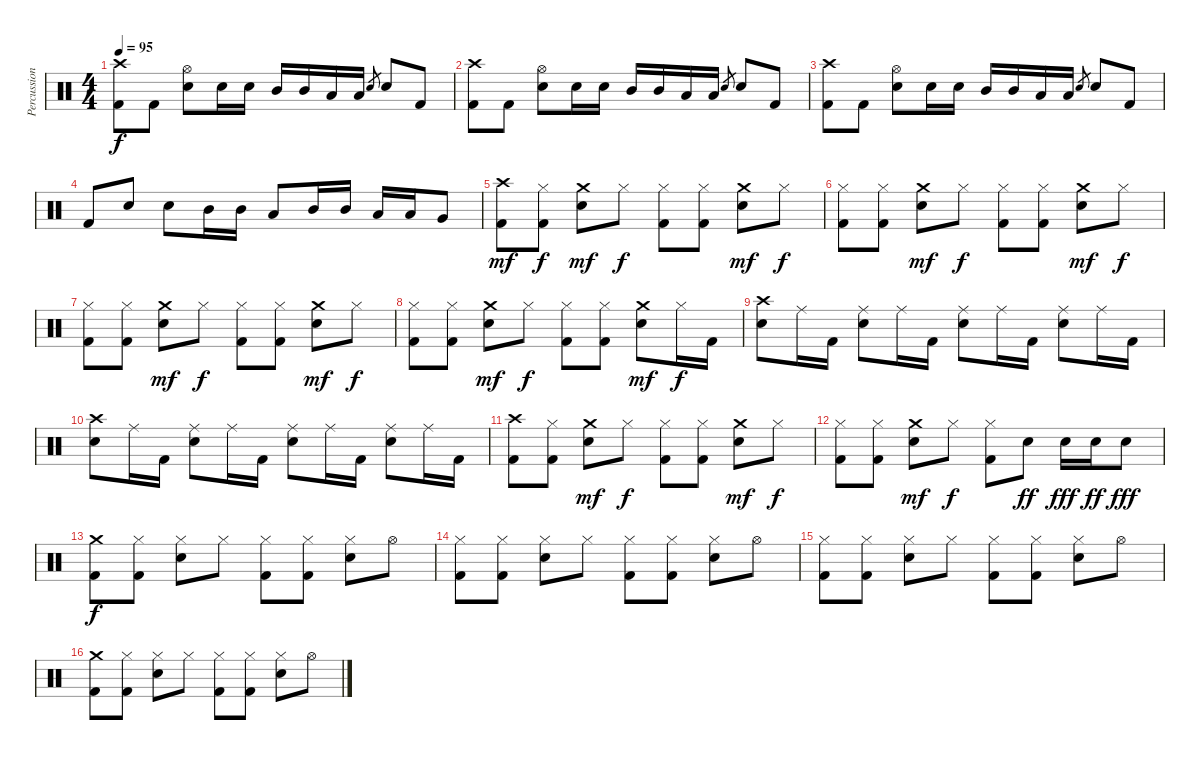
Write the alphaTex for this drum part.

\track ("Percussions" "Percussion") {instrument percussion}
\staff {score}
\articulation defaults
\ts (4 4)
\tempo 95
\clef neutral
\ks c
("Crash high (hit)" "Kick (hit) 2").8{dy f} "Kick (hit) 2".8 ("Hi-Hat (open)" "Electric Snare (hit)").8 "Electric Snare (hit)".16 "Electric Snare (hit)".16 "Mid Tom (hit)".16 "Mid Tom (hit)".16 "Low Tom (hit)".16 "Low Tom (hit)".16 "Electric Snare (hit)".8{gr} "Electric Snare (hit)".8 "Kick (hit) 2".8 |
("Crash high (hit)" "Kick (hit) 2").8 "Kick (hit) 2".8 ("Hi-Hat (open)" "Electric Snare (hit)").8 "Electric Snare (hit)".16 "Electric Snare (hit)".16 "Mid Tom (hit)".16 "Mid Tom (hit)".16 "Low Tom (hit)".16 "Low Tom (hit)".16 "Electric Snare (hit)".8{gr} "Electric Snare (hit)".8 "Kick (hit) 2".8 |
("Crash high (hit)" "Kick (hit) 2").8 "Kick (hit) 2".8 ("Hi-Hat (open)" "Electric Snare (hit)").8 "Electric Snare (hit)".16 "Electric Snare (hit)".16 "Mid Tom (hit)".16 "Mid Tom (hit)".16 "Low Tom (hit)".16 "Low Tom (hit)".16 "Electric Snare (hit)".8{gr} "Electric Snare (hit)".8 "Kick (hit) 2".8 |
"Kick (hit) 2".8 "Electric Snare (hit)".8 "Electric Snare (hit)".8 "Mid Tom (hit)".16 "Mid Tom (hit)".16 "Low Tom (hit)".8 "Mid Tom (hit)".16 "Mid Tom (hit)".16 "Low Tom (hit)".16 "Low Tom (hit)".16 "Very Low Tom (hit)".8 |
("Crash high (hit)" "Kick (hit) 2").8{dy mf} ("Hi-Hat (closed)" "Kick (hit) 2").8{dy f} ("Crash medium (hit)" "Electric Snare (hit)").8{dy mf} "Hi-Hat (closed)".8{dy f} ("Hi-Hat (closed)" "Kick (hit) 2").8 ("Hi-Hat (closed)" "Kick (hit) 2").8 ("Crash medium (hit)" "Electric Snare (hit)").8{dy mf} "Hi-Hat (closed)".8{dy f} |
("Hi-Hat (closed)" "Kick (hit) 2").8 ("Hi-Hat (closed)" "Kick (hit) 2").8 ("Crash medium (hit)" "Electric Snare (hit)").8{dy mf} "Hi-Hat (closed)".8{dy f} ("Hi-Hat (closed)" "Kick (hit) 2").8 ("Hi-Hat (closed)" "Kick (hit) 2").8 ("Crash medium (hit)" "Electric Snare (hit)").8{dy mf} "Hi-Hat (closed)".8{dy f} |
("Hi-Hat (closed)" "Kick (hit) 2").8 ("Hi-Hat (closed)" "Kick (hit) 2").8 ("Crash medium (hit)" "Electric Snare (hit)").8{dy mf} "Hi-Hat (closed)".8{dy f} ("Hi-Hat (closed)" "Kick (hit) 2").8 ("Hi-Hat (closed)" "Kick (hit) 2").8 ("Crash medium (hit)" "Electric Snare (hit)").8{dy mf} "Hi-Hat (closed)".8{dy f} |
("Hi-Hat (closed)" "Kick (hit) 2").8 ("Hi-Hat (closed)" "Kick (hit) 2").8 ("Crash medium (hit)" "Electric Snare (hit)").8{dy mf} "Hi-Hat (closed)".8{dy f} ("Hi-Hat (closed)" "Kick (hit) 2").8 ("Hi-Hat (closed)" "Kick (hit) 2").8 ("Crash medium (hit)" "Electric Snare (hit)").8{dy mf} "Hi-Hat (closed)".16{dy f} "Kick (hit) 2".16 |
("Crash high (hit)" "Electric Snare (hit)").8 "Ride (middle)".16 "Kick (hit) 2".16 ("Ride (middle)" "Electric Snare (hit)").8 "Ride (middle)".16 "Kick (hit) 2".16 ("Ride (middle)" "Electric Snare (hit)").8 "Ride (middle)".16 "Kick (hit) 2".16 ("Ride (middle)" "Electric Snare (hit)").8 "Ride (middle)".16 "Kick (hit) 2".16 |
("Crash high (hit)" "Electric Snare (hit)").8 "Ride (middle)".16 "Kick (hit) 2".16 ("Ride (middle)" "Electric Snare (hit)").8 "Ride (middle)".16 "Kick (hit) 2".16 ("Ride (middle)" "Electric Snare (hit)").8 "Ride (middle)".16 "Kick (hit) 2".16 ("Ride (middle)" "Electric Snare (hit)").8 "Ride (middle)".16 "Kick (hit) 2".16 |
("Crash high (hit)" "Kick (hit) 2").8 ("Hi-Hat (closed)" "Kick (hit) 2").8 ("Crash medium (hit)" "Electric Snare (hit)").8{dy mf} "Hi-Hat (closed)".8{dy f} ("Hi-Hat (closed)" "Kick (hit) 2").8 ("Hi-Hat (closed)" "Kick (hit) 2").8 ("Crash medium (hit)" "Electric Snare (hit)").8{dy mf} "Hi-Hat (closed)".8{dy f} |
("Hi-Hat (closed)" "Kick (hit) 2").8 ("Hi-Hat (closed)" "Kick (hit) 2").8 ("Crash medium (hit)" "Electric Snare (hit)").8{dy mf} "Hi-Hat (closed)".8{dy f} ("Hi-Hat (closed)" "Kick (hit) 2").8 "Electric Snare (hit)".8{dy ff} "Electric Snare (hit)".16{dy fff} "Electric Snare (hit)".16{dy ff} "Electric Snare (hit)".8{dy fff} |
("Crash medium (hit)" "Kick (hit) 2").8{dy f} ("Hi-Hat (closed)" "Kick (hit) 2").8 ("Hi-Hat (closed)" "Electric Snare (hit)").8 "Hi-Hat (closed)".8 ("Hi-Hat (closed)" "Kick (hit) 2").8 ("Hi-Hat (closed)" "Kick (hit) 2").8 ("Hi-Hat (closed)" "Electric Snare (hit)").8 "Hi-Hat (open)".8 |
("Hi-Hat (closed)" "Kick (hit) 2").8 ("Hi-Hat (closed)" "Kick (hit) 2").8 ("Hi-Hat (closed)" "Electric Snare (hit)").8 "Hi-Hat (closed)".8 ("Hi-Hat (closed)" "Kick (hit) 2").8 ("Hi-Hat (closed)" "Kick (hit) 2").8 ("Hi-Hat (closed)" "Electric Snare (hit)").8 "Hi-Hat (open)".8 |
("Hi-Hat (closed)" "Kick (hit) 2").8 ("Hi-Hat (closed)" "Kick (hit) 2").8 ("Hi-Hat (closed)" "Electric Snare (hit)").8 "Hi-Hat (closed)".8 ("Hi-Hat (closed)" "Kick (hit) 2").8 ("Hi-Hat (closed)" "Kick (hit) 2").8 ("Hi-Hat (closed)" "Electric Snare (hit)").8 "Hi-Hat (open)".8 |
("Crash medium (hit)" "Kick (hit) 2").8 ("Hi-Hat (closed)" "Kick (hit) 2").8 ("Hi-Hat (closed)" "Electric Snare (hit)").8 "Hi-Hat (closed)".8 ("Hi-Hat (closed)" "Kick (hit) 2").8 ("Hi-Hat (closed)" "Kick (hit) 2").8 ("Hi-Hat (closed)" "Electric Snare (hit)").8 "Hi-Hat (open)".8
